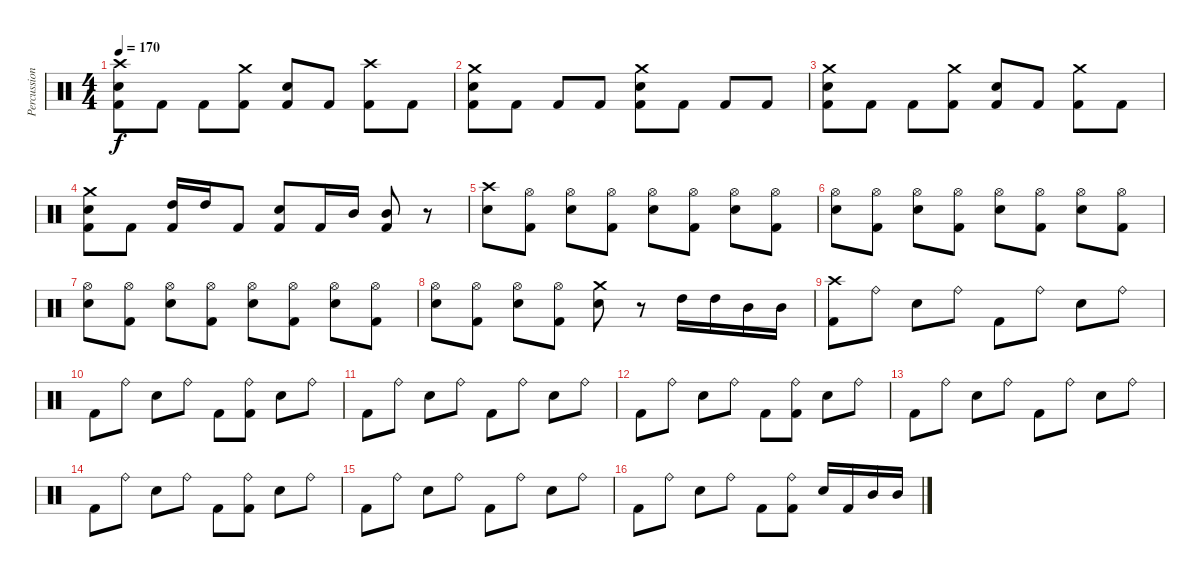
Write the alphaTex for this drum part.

\track ("Percussion" "Percussion") {instrument percussion}
\staff {score}
\articulation defaults
\ts (4 4)
\tempo 170
\clef neutral
\ks c
("Crash high (hit)" "Electric Snare (hit)" "Kick (hit) 2").8{dy f} "Kick (hit) 2".8 "Kick (hit) 2".8 ("Crash medium (hit)" "Kick (hit) 2").8 ("Electric Snare (hit)" "Kick (hit) 2").8 "Kick (hit) 2".8 ("Crash high (hit)" "Kick (hit) 2").8 "Kick (hit) 2".8 |
("Crash medium (hit)" "Electric Snare (hit)" "Kick (hit) 2").8 "Kick (hit) 2".8 "Kick (hit) 2".8 "Kick (hit) 2".8 ("Crash medium (hit)" "Electric Snare (hit)" "Kick (hit) 2").8 "Kick (hit) 2".8 "Kick (hit) 2".8 "Kick (hit) 2".8 |
("Crash medium (hit)" "Electric Snare (hit)" "Kick (hit) 2").8 "Kick (hit) 2".8 "Kick (hit) 2".8 ("Crash medium (hit)" "Kick (hit) 2").8 ("Electric Snare (hit)" "Kick (hit) 2").8 "Kick (hit) 2".8 ("Crash medium (hit)" "Kick (hit) 2").8 "Kick (hit) 2".8 |
("Crash medium (hit)" "Electric Snare (hit)" "Kick (hit) 2").8 "Kick (hit) 2".8 ("High Tom (hit)" "Kick (hit) 2").16 "High Tom (hit)".16 "Kick (hit) 2".8 ("Electric Snare (hit)" "Kick (hit) 2").8 "Kick (hit) 2".16 "Mid Tom (hit)".16 ("Mid Tom (hit)" "Kick (hit) 2").8 r.8 |
("Crash high (hit)" "Electric Snare (hit)").8 ("Hi-Hat (open)" "Kick (hit) 2").8 ("Hi-Hat (open)" "Electric Snare (hit)").8 ("Hi-Hat (open)" "Kick (hit) 2").8 ("Hi-Hat (open)" "Electric Snare (hit)").8 ("Hi-Hat (open)" "Kick (hit) 2").8 ("Hi-Hat (open)" "Electric Snare (hit)").8 ("Hi-Hat (open)" "Kick (hit) 2").8 |
("Hi-Hat (open)" "Electric Snare (hit)").8 ("Hi-Hat (open)" "Kick (hit) 2").8 ("Hi-Hat (open)" "Electric Snare (hit)").8 ("Hi-Hat (open)" "Kick (hit) 2").8 ("Electric Snare (hit)" "Hi-Hat (open)").8 ("Kick (hit) 2" "Hi-Hat (open)").8 ("Electric Snare (hit)" "Hi-Hat (open)").8 ("Kick (hit) 2" "Hi-Hat (open)").8 |
("Hi-Hat (open)" "Electric Snare (hit)").8 ("Hi-Hat (open)" "Kick (hit) 2").8 ("Hi-Hat (open)" "Electric Snare (hit)").8 ("Hi-Hat (open)" "Kick (hit) 2").8 ("Hi-Hat (open)" "Electric Snare (hit)").8 ("Hi-Hat (open)" "Kick (hit) 2").8 ("Hi-Hat (open)" "Electric Snare (hit)").8 ("Hi-Hat (open)" "Kick (hit) 2").8 |
("Hi-Hat (open)" "Electric Snare (hit)").8 ("Hi-Hat (open)" "Kick (hit) 2").8 ("Hi-Hat (open)" "Electric Snare (hit)").8 ("Hi-Hat (open)" "Kick (hit) 2").8 ("Crash medium (hit)" "Electric Snare (hit)").8 r.8 "High Tom (hit)".16 "High Tom (hit)".16 "Mid Tom (hit)".16 "Mid Tom (hit)".16 |
("Crash high (hit)" "Kick (hit) 2").8 "Ride (bell)".8 "Electric Snare (hit)".8 "Ride (bell)".8 "Kick (hit) 2".8 "Ride (bell)".8 "Electric Snare (hit)".8 "Ride (bell)".8 |
"Kick (hit) 2".8 "Ride (bell)".8 "Electric Snare (hit)".8 "Ride (bell)".8 "Kick (hit) 2".8 ("Kick (hit) 2" "Ride (bell)").8 "Electric Snare (hit)".8 "Ride (bell)".8 |
"Kick (hit) 2".8 "Ride (bell)".8 "Electric Snare (hit)".8 "Ride (bell)".8 "Kick (hit) 2".8 "Ride (bell)".8 "Electric Snare (hit)".8 "Ride (bell)".8 |
"Kick (hit) 2".8 "Ride (bell)".8 "Electric Snare (hit)".8 "Ride (bell)".8 "Kick (hit) 2".8 ("Kick (hit) 2" "Ride (bell)").8 "Electric Snare (hit)".8 "Ride (bell)".8 |
"Kick (hit) 2".8 "Ride (bell)".8 "Electric Snare (hit)".8 "Ride (bell)".8 "Kick (hit) 2".8 "Ride (bell)".8 "Electric Snare (hit)".8 "Ride (bell)".8 |
"Kick (hit) 2".8 "Ride (bell)".8 "Electric Snare (hit)".8 "Ride (bell)".8 "Kick (hit) 2".8 ("Kick (hit) 2" "Ride (bell)").8 "Electric Snare (hit)".8 "Ride (bell)".8 |
"Kick (hit) 2".8 "Ride (bell)".8 "Electric Snare (hit)".8 "Ride (bell)".8 "Kick (hit) 2".8 "Ride (bell)".8 "Electric Snare (hit)".8 "Ride (bell)".8 |
"Kick (hit) 2".8 "Ride (bell)".8 "Electric Snare (hit)".8 "Ride (bell)".8 "Kick (hit) 2".8 ("Kick (hit) 2" "Ride (bell)").8 "Electric Snare (hit)".16 "Kick (hit) 2".16 "Mid Tom (hit)".16 "Mid Tom (hit)".16
